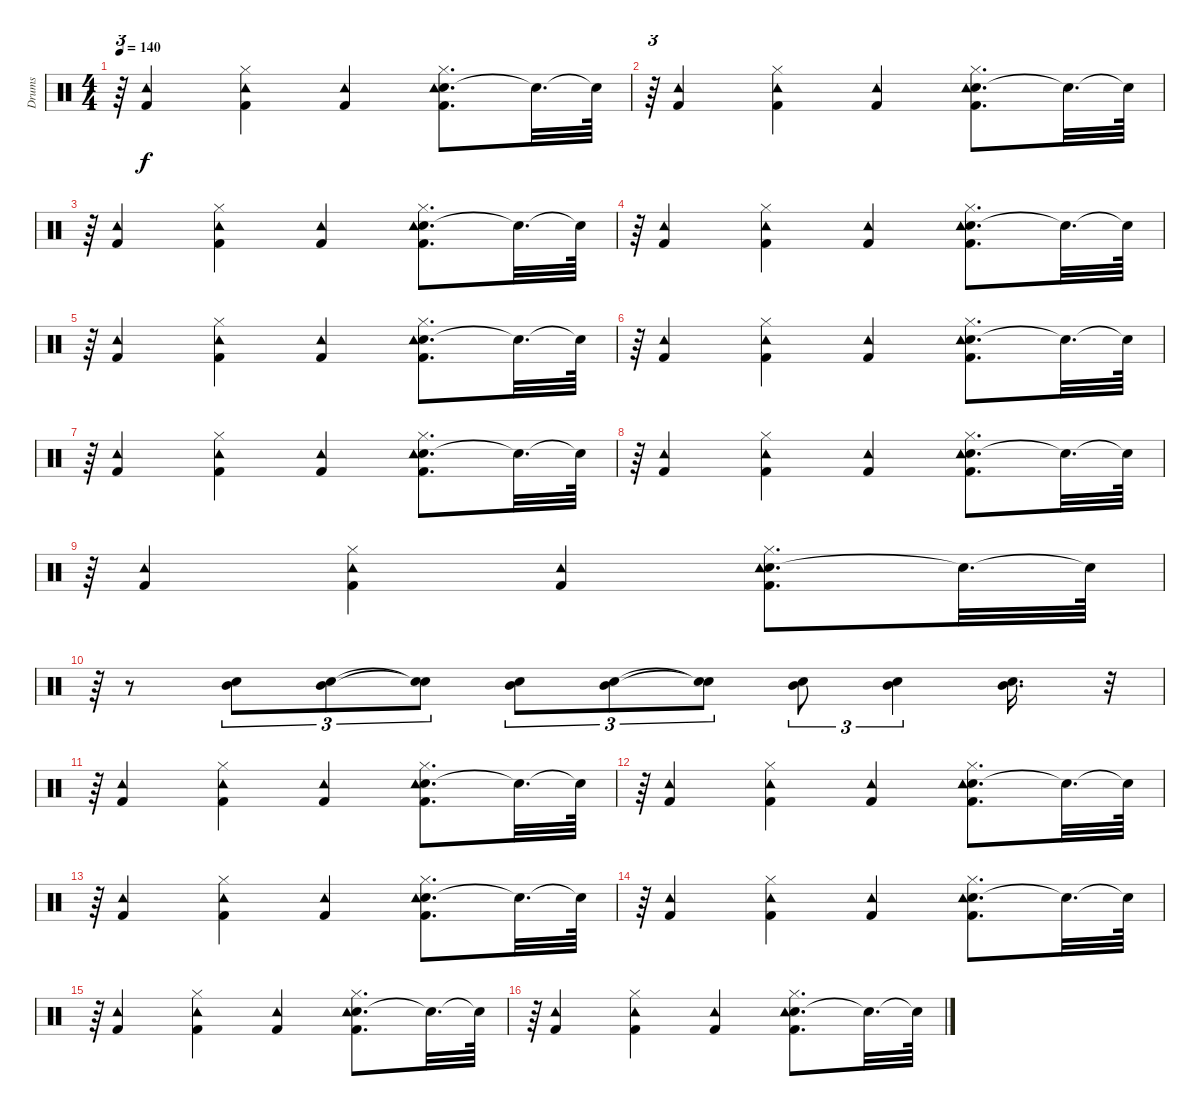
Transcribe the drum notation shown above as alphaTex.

\track ("Drums" "Drums") {instrument percussion}
\staff {score}
\articulation defaults
\ts (4 4)
\tempo 140
\clef neutral
\ks c
r.64{tu (3 2) dy f} ("Tambourine (hit)" "Kick (hit) 2").4 ("Hi-Hat (closed)" "Tambourine (hit)" "Kick (hit) 2").4 ("Tambourine (hit)" "Kick (hit) 2").4 ("Electric Snare (hit)" "Hi-Hat (closed)" "Tambourine (hit)" "Kick (hit) 2").8{d} "Snare (hit)"{t}.32{d} "Snare (hit)"{t}.64 |
r.64{tu (3 2)} ("Tambourine (hit)" "Kick (hit) 2").4 ("Hi-Hat (closed)" "Tambourine (hit)" "Kick (hit) 2").4 ("Tambourine (hit)" "Kick (hit) 2").4 ("Electric Snare (hit)" "Hi-Hat (closed)" "Tambourine (hit)" "Kick (hit) 2").8{d} "Snare (hit)"{t}.32{d} "Snare (hit)"{t}.64 |
r.64{tu (3 2)} ("Tambourine (hit)" "Kick (hit) 2").4 ("Hi-Hat (closed)" "Tambourine (hit)" "Kick (hit) 2").4 ("Tambourine (hit)" "Kick (hit) 2").4 ("Electric Snare (hit)" "Hi-Hat (closed)" "Tambourine (hit)" "Kick (hit) 2").8{d} "Snare (hit)"{t}.32{d} "Snare (hit)"{t}.64 |
r.64{tu (3 2)} ("Tambourine (hit)" "Kick (hit) 2").4 ("Hi-Hat (closed)" "Tambourine (hit)" "Kick (hit) 2").4 ("Tambourine (hit)" "Kick (hit) 2").4 ("Electric Snare (hit)" "Hi-Hat (closed)" "Tambourine (hit)" "Kick (hit) 2").8{d} "Snare (hit)"{t}.32{d} "Snare (hit)"{t}.64 |
r.64{tu (3 2)} ("Tambourine (hit)" "Kick (hit) 2").4 ("Hi-Hat (closed)" "Tambourine (hit)" "Kick (hit) 2").4 ("Tambourine (hit)" "Kick (hit) 2").4 ("Electric Snare (hit)" "Hi-Hat (closed)" "Tambourine (hit)" "Kick (hit) 2").8{d} "Snare (hit)"{t}.32{d} "Snare (hit)"{t}.64 |
r.64{tu (3 2)} ("Tambourine (hit)" "Kick (hit) 2").4 ("Hi-Hat (closed)" "Tambourine (hit)" "Kick (hit) 2").4 ("Tambourine (hit)" "Kick (hit) 2").4 ("Electric Snare (hit)" "Hi-Hat (closed)" "Tambourine (hit)" "Kick (hit) 2").8{d} "Snare (hit)"{t}.32{d} "Snare (hit)"{t}.64 |
r.64{tu (3 2)} ("Tambourine (hit)" "Kick (hit) 2").4 ("Hi-Hat (closed)" "Tambourine (hit)" "Kick (hit) 2").4 ("Tambourine (hit)" "Kick (hit) 2").4 ("Electric Snare (hit)" "Hi-Hat (closed)" "Tambourine (hit)" "Kick (hit) 2").8{d} "Snare (hit)"{t}.32{d} "Snare (hit)"{t}.64 |
r.64{tu (3 2)} ("Tambourine (hit)" "Kick (hit) 2").4 ("Hi-Hat (closed)" "Tambourine (hit)" "Kick (hit) 2").4 ("Tambourine (hit)" "Kick (hit) 2").4 ("Electric Snare (hit)" "Hi-Hat (closed)" "Tambourine (hit)" "Kick (hit) 2").8{d} "Snare (hit)"{t}.32{d} "Snare (hit)"{t}.64 |
r.64{tu (3 2)} ("Tambourine (hit)" "Kick (hit) 2").4 ("Hi-Hat (closed)" "Tambourine (hit)" "Kick (hit) 2").4 ("Tambourine (hit)" "Kick (hit) 2").4 ("Electric Snare (hit)" "Hi-Hat (closed)" "Tambourine (hit)" "Kick (hit) 2").8{d} "Snare (hit)"{t}.32{d} "Snare (hit)"{t}.64 |
r.64{tu (3 2)} r.8 ("Mid Tom (hit)" "Electric Snare (hit)").8{tu (3 2)} ("Mid Tom (hit)" "Electric Snare (hit)").8{tu (3 2)} ("Snare (hit)"{t} "Snare (hit)"{t}).8{tu (3 2)} ("Mid Tom (hit)" "Electric Snare (hit)").8{tu (3 2)} ("Mid Tom (hit)" "Electric Snare (hit)").8{tu (3 2)} ("Snare (hit)"{t} "Snare (hit)"{t}).8{tu (3 2)} ("Mid Tom (hit)" "Electric Snare (hit)").8{tu (3 2)} ("Mid Tom (hit)" "Electric Snare (hit)").4{tu (3 2)} ("Mid Tom (hit)" "Electric Snare (hit)").16{d} r.32{tu (3 2)} |
r.64{tu (3 2)} ("Tambourine (hit)" "Kick (hit) 2").4 ("Hi-Hat (closed)" "Tambourine (hit)" "Kick (hit) 2").4 ("Tambourine (hit)" "Kick (hit) 2").4 ("Electric Snare (hit)" "Hi-Hat (closed)" "Tambourine (hit)" "Kick (hit) 2").8{d} "Snare (hit)"{t}.32{d} "Snare (hit)"{t}.64 |
r.64{tu (3 2)} ("Tambourine (hit)" "Kick (hit) 2").4 ("Hi-Hat (closed)" "Tambourine (hit)" "Kick (hit) 2").4 ("Tambourine (hit)" "Kick (hit) 2").4 ("Electric Snare (hit)" "Hi-Hat (closed)" "Tambourine (hit)" "Kick (hit) 2").8{d} "Snare (hit)"{t}.32{d} "Snare (hit)"{t}.64 |
r.64{tu (3 2)} ("Tambourine (hit)" "Kick (hit) 2").4 ("Hi-Hat (closed)" "Tambourine (hit)" "Kick (hit) 2").4 ("Tambourine (hit)" "Kick (hit) 2").4 ("Electric Snare (hit)" "Hi-Hat (closed)" "Tambourine (hit)" "Kick (hit) 2").8{d} "Snare (hit)"{t}.32{d} "Snare (hit)"{t}.64 |
r.64{tu (3 2)} ("Tambourine (hit)" "Kick (hit) 2").4 ("Hi-Hat (closed)" "Tambourine (hit)" "Kick (hit) 2").4 ("Tambourine (hit)" "Kick (hit) 2").4 ("Electric Snare (hit)" "Hi-Hat (closed)" "Tambourine (hit)" "Kick (hit) 2").8{d} "Snare (hit)"{t}.32{d} "Snare (hit)"{t}.64 |
r.64{tu (3 2)} ("Tambourine (hit)" "Kick (hit) 2").4 ("Hi-Hat (closed)" "Tambourine (hit)" "Kick (hit) 2").4 ("Tambourine (hit)" "Kick (hit) 2").4 ("Electric Snare (hit)" "Hi-Hat (closed)" "Tambourine (hit)" "Kick (hit) 2").8{d} "Snare (hit)"{t}.32{d} "Snare (hit)"{t}.64 |
r.64{tu (3 2)} ("Tambourine (hit)" "Kick (hit) 2").4 ("Hi-Hat (closed)" "Tambourine (hit)" "Kick (hit) 2").4 ("Tambourine (hit)" "Kick (hit) 2").4 ("Electric Snare (hit)" "Hi-Hat (closed)" "Tambourine (hit)" "Kick (hit) 2").8{d} "Snare (hit)"{t}.32{d} "Snare (hit)"{t}.64
